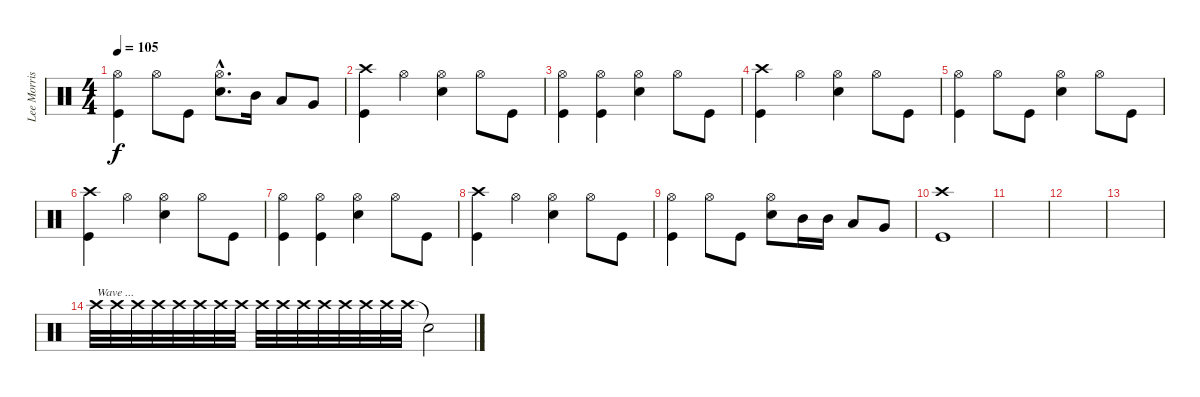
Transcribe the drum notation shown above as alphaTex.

\track ("Lee Morris" "Lee Morris") {instrument percussion}
\staff {score}
\articulation defaults
\ts (4 4)
\tempo 105
\clef neutral
\ks c
("Kick (hit)" "Hi-Hat (open)").4{dy f} "Hi-Hat (open)".8 "Kick (hit)".8 ("Snare (hit) 2"{hac} "Hi-Hat (open)"{hac}).8{d} "Mid Tom (hit)".16 "Low Tom (hit)".8 "Very Low Tom (hit)".8 |
("Kick (hit)" "Crash high (hit)").4 "Hi-Hat (open)".4 ("Snare (hit) 2" "Hi-Hat (open)").4 "Hi-Hat (open)".8 "Kick (hit)".8 |
("Kick (hit)" "Hi-Hat (open)").4 ("Kick (hit)" "Hi-Hat (open)").4 ("Snare (hit) 2" "Hi-Hat (open)").4 "Hi-Hat (open)".8 "Kick (hit)".8 |
("Kick (hit)" "Crash high (hit)").4 "Hi-Hat (open)".4 ("Snare (hit) 2" "Hi-Hat (open)").4 "Hi-Hat (open)".8 "Kick (hit)".8 |
("Kick (hit)" "Hi-Hat (open)").4 "Hi-Hat (open)".8 "Kick (hit)".8 ("Snare (hit) 2" "Hi-Hat (open)").4 "Hi-Hat (open)".8 "Kick (hit)".8 |
("Kick (hit)" "Crash high (hit)").4 "Hi-Hat (open)".4 ("Snare (hit) 2" "Hi-Hat (open)").4 "Hi-Hat (open)".8 "Kick (hit)".8 |
("Kick (hit)" "Hi-Hat (open)").4 ("Kick (hit)" "Hi-Hat (open)").4 ("Snare (hit) 2" "Hi-Hat (open)").4 "Hi-Hat (open)".8 "Kick (hit)".8 |
("Kick (hit)" "Crash high (hit)").4 "Hi-Hat (open)".4 ("Snare (hit) 2" "Hi-Hat (open)").4 "Hi-Hat (open)".8 "Kick (hit)".8 |
("Kick (hit)" "Hi-Hat (open)").4 "Hi-Hat (open)".8 "Kick (hit)".8 ("Snare (hit) 2" "Hi-Hat (open)").8 "Mid Tom (hit)".16 "Mid Tom (hit)".16 "Low Tom (hit)".8 "Very Low Tom (hit)".8 |
("Kick (hit)" "Crash high (hit)").1 |
|
|
|
"Crash high (hit)".32{txt "Wave ..."} "Crash high (hit)".32 "Crash high (hit)".32 "Crash high (hit)".32 "Crash high (hit)".32 "Crash high (hit)".32 "Crash high (hit)".32 "Crash high (hit)".32 "Crash high (hit)".32 "Crash high (hit)".32 "Crash high (hit)".32 "Crash high (hit)".32 "Crash high (hit)".32 "Crash high (hit)".32 "Crash high (hit)".32 "Crash high (hit)".32 "Snare (hit)"{t}.2
